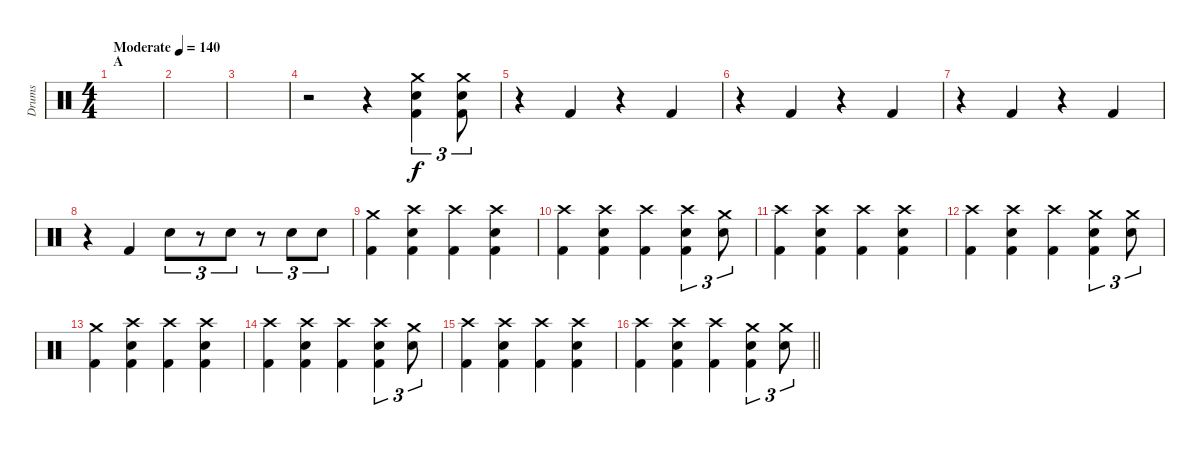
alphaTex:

\track ("Drums" "Drums") {instrument percussion}
\staff {score}
\articulation defaults
\ts (4 4)
\section ("" "A")
\tempo (140 "Moderate")
\clef neutral
\ks c
|
|
|
r.2 r.4 ("Crash medium (hit)" "Electric Snare (hit)" "Kick (hit) 2").4{tu (3 2)} ("Crash medium (hit)" "Electric Snare (hit)" "Kick (hit) 2").8{tu (3 2)} |
r.4 "Kick (hit) 2".4 r.4 "Kick (hit) 2".4 |
r.4 "Kick (hit) 2".4 r.4 "Kick (hit) 2".4 |
r.4 "Kick (hit) 2".4 r.4 "Kick (hit) 2".4 |
r.4 "Kick (hit) 2".4 "Electric Snare (hit)".8{tu (3 2)} r.8{tu (3 2)} "Electric Snare (hit)".8{tu (3 2)} r.8{tu (3 2)} "Electric Snare (hit)".8{tu (3 2)} "Electric Snare (hit)".8{tu (3 2)} |
("Kick (hit) 2" "Crash medium (hit)").4 ("Crash high (hit)" "Electric Snare (hit)" "Kick (hit) 2").4 ("Crash high (hit)" "Kick (hit) 2").4 ("Crash high (hit)" "Electric Snare (hit)" "Kick (hit) 2").4 |
("Crash high (hit)" "Kick (hit) 2").4 ("Crash high (hit)" "Electric Snare (hit)" "Kick (hit) 2").4 ("Crash high (hit)" "Kick (hit) 2").4 ("Crash high (hit)" "Electric Snare (hit)" "Kick (hit) 2").4{tu (3 2)} ("Electric Snare (hit)" "Crash medium (hit)").8{tu (3 2)} |
("Crash high (hit)" "Kick (hit) 2").4 ("Crash high (hit)" "Electric Snare (hit)" "Kick (hit) 2").4 ("Crash high (hit)" "Kick (hit) 2").4 ("Crash high (hit)" "Electric Snare (hit)" "Kick (hit) 2").4 |
("Crash high (hit)" "Kick (hit) 2").4 ("Crash high (hit)" "Electric Snare (hit)" "Kick (hit) 2").4 ("Crash high (hit)" "Kick (hit) 2").4 ("Crash medium (hit)" "Electric Snare (hit)" "Kick (hit) 2").4{tu (3 2)} ("Electric Snare (hit)" "Crash medium (hit)").8{tu (3 2)} |
("Kick (hit) 2" "Crash medium (hit)").4 ("Crash high (hit)" "Electric Snare (hit)" "Kick (hit) 2").4 ("Crash high (hit)" "Kick (hit) 2").4 ("Crash high (hit)" "Electric Snare (hit)" "Kick (hit) 2").4 |
("Crash high (hit)" "Kick (hit) 2").4 ("Crash high (hit)" "Electric Snare (hit)" "Kick (hit) 2").4 ("Crash high (hit)" "Kick (hit) 2").4 ("Crash high (hit)" "Electric Snare (hit)" "Kick (hit) 2").4{tu (3 2)} ("Electric Snare (hit)" "Crash medium (hit)").8{tu (3 2)} |
("Crash high (hit)" "Kick (hit) 2").4 ("Crash high (hit)" "Electric Snare (hit)" "Kick (hit) 2").4 ("Crash high (hit)" "Kick (hit) 2").4 ("Crash high (hit)" "Electric Snare (hit)" "Kick (hit) 2").4 |
\barLineRight lightlight
("Crash high (hit)" "Kick (hit) 2").4 ("Crash high (hit)" "Electric Snare (hit)" "Kick (hit) 2").4 ("Crash high (hit)" "Kick (hit) 2").4 ("Crash medium (hit)" "Electric Snare (hit)" "Kick (hit) 2").4{tu (3 2)} ("Electric Snare (hit)" "Crash medium (hit)").8{tu (3 2)}
